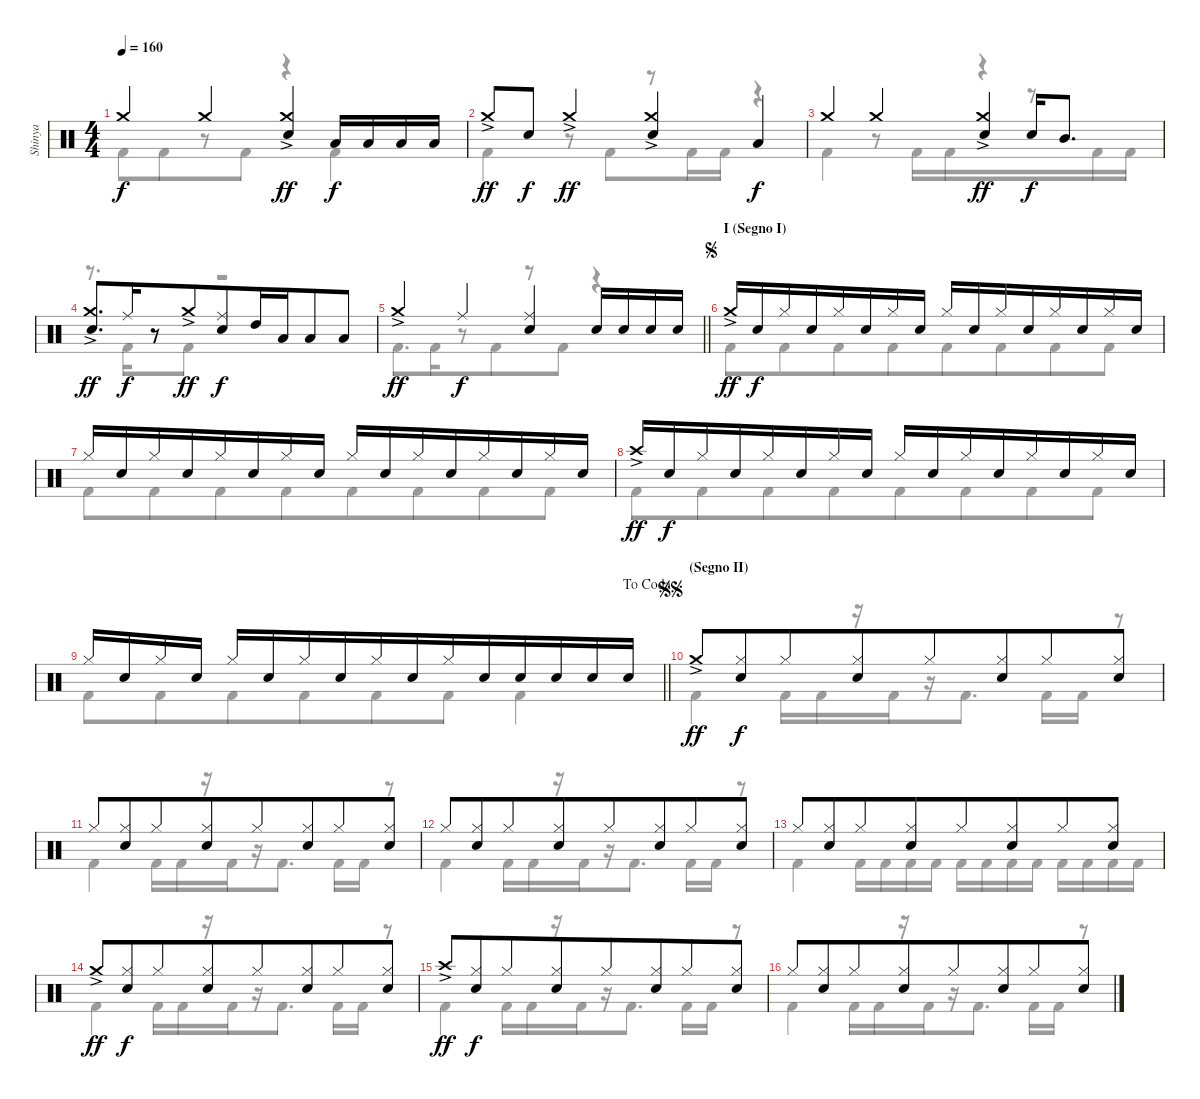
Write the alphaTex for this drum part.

\track ("Shinya" "Shinya") {instrument percussion}
\staff {score}
\articulation defaults
\voice
\ts (4 4)
\tempo 160
\clef neutral
\ks c "Crash medium (hit)".4{dy f beam merge} "Crash medium (hit)".4{beam merge}
("Crash medium (hit)"{ac} "Electric Snare (hit)").4{dy ff} "Low Tom (hit)".16{dy f} "Low Tom (hit)".16 "Low Tom (hit)".16 "Low Tom (hit)".16 |
"Crash medium (hit)"{ac}.8{dy ff beam merge} "Electric Snare (hit)".8{dy f beam merge} "Crash medium (hit)"{ac}.4{dy ff beam merge} ("Crash medium (hit)"{ac} "Electric Snare (hit)").4{beam merge} "Low Tom (hit)".4{dy f} |
"Crash medium (hit)".4{beam merge} "Crash medium (hit)".4{beam merge} ("Crash medium (hit)"{ac} "Electric Snare (hit)").4{dy ff beam merge} "Electric Snare (hit)".16{dy f} "Mid Tom (hit)".8{d} |
("Crash medium (hit)"{ac} "Electric Snare (hit)").8{d dy ff beam merge} "Ride (middle)".16{dy f beam merge} r.8{beam merge} "Crash medium (hit)"{ac}.8{dy ff beam merge} ("Ride (middle)" "Electric Snare (hit)").8{dy f} "High Tom (hit)".16 "Low Tom (hit)".16{beam merge} "Low Tom (hit)".8 "Low Tom (hit)".8 |
\barLineRight lightlight "Crash medium (hit)"{ac}.4{dy ff beam merge} "Ride (middle)".4{dy f beam merge}
("Ride (middle)" "Electric Snare (hit)").4{beam merge} "Electric Snare (hit)".16 "Electric Snare (hit)".16 "Electric Snare (hit)".16 "Electric Snare (hit)".16 |
\section ("" "I (Segno I)")
\jump segno "Crash medium (hit)"{ac}.16{dy ff beam merge} "Electric Snare (hit)".16{dy f beam merge} "Hi-Hat (closed)".16{beam merge} "Electric Snare (hit)".16{beam merge} "Hi-Hat (closed)".16 "Electric Snare (hit)".16{beam merge} "Hi-Hat (closed)".16 "Electric Snare (hit)".16 "Hi-Hat (closed)".16{beam merge} "Electric Snare (hit)".16{beam merge} "Hi-Hat (closed)".16{beam merge} "Electric Snare (hit)".16{beam merge} "Hi-Hat (closed)".16 "Electric Snare (hit)".16{beam merge} "Hi-Hat (closed)".16 "Electric Snare (hit)".16
|
"Hi-Hat (closed)".16{beam merge} "Electric Snare (hit)".16{beam merge} "Hi-Hat (closed)".16{beam merge} "Electric Snare (hit)".16{beam merge} "Hi-Hat (closed)".16 "Electric Snare (hit)".16{beam merge} "Hi-Hat (closed)".16 "Electric Snare (hit)".16 "Hi-Hat (closed)".16{beam merge} "Electric Snare (hit)".16{beam merge} "Hi-Hat (closed)".16{beam merge} "Electric Snare (hit)".16{beam merge} "Hi-Hat (closed)".16 "Electric Snare (hit)".16{beam merge} "Hi-Hat (closed)".16 "Electric Snare (hit)".16 |
"Crash high (hit)"{ac}.16{dy ff beam merge} "Electric Snare (hit)".16{dy f beam merge} "Hi-Hat (closed)".16{beam merge} "Electric Snare (hit)".16{beam merge} "Hi-Hat (closed)".16 "Electric Snare (hit)".16{beam merge} "Hi-Hat (closed)".16 "Electric Snare (hit)".16 "Hi-Hat (closed)".16{beam merge} "Electric Snare (hit)".16{beam merge} "Hi-Hat (closed)".16{beam merge} "Electric Snare (hit)".16{beam merge} "Hi-Hat (closed)".16 "Electric Snare (hit)".16{beam merge} "Hi-Hat (closed)".16 "Electric Snare (hit)".16 |
\jump dacoda
\barLineRight lightlight "Hi-Hat (closed)".16 "Electric Snare (hit)".16{beam merge} "Hi-Hat (closed)".16 "Electric Snare (hit)".16 "Hi-Hat (closed)".16{beam merge} "Electric Snare (hit)".16{beam merge} "Hi-Hat (closed)".16{beam merge} "Electric Snare (hit)".16{beam merge} "Hi-Hat (closed)".16 "Electric Snare (hit)".16{beam merge} "Hi-Hat (closed)".16 "Electric Snare (hit)".16{beam merge} "Electric Snare (hit)".16 "Electric Snare (hit)".16 "Electric Snare (hit)".16{beam merge} "Electric Snare (hit)".16
|
\section ("" "(Segno II)")
\jump segnosegno "Crash medium (hit)"{ac}.8{dy ff beam merge}
("Hi-Hat (closed)" "Electric Snare (hit)").8{dy f beam merge} "Hi-Hat (closed)".8{beam merge} ("Hi-Hat (closed)" "Electric Snare (hit)").8{beam merge} "Hi-Hat (closed)".8 ("Hi-Hat (closed)" "Electric Snare (hit)").8{beam merge} "Hi-Hat (closed)".8 ("Hi-Hat (closed)" "Electric Snare (hit)").8 |
"Hi-Hat (closed)".8 ("Hi-Hat (closed)" "Electric Snare (hit)").8{beam merge} "Hi-Hat (closed)".8 ("Hi-Hat (closed)" "Electric Snare (hit)").8{beam merge} "Hi-Hat (closed)".8 ("Hi-Hat (closed)" "Electric Snare (hit)").8{beam merge} "Hi-Hat (closed)".8 ("Hi-Hat (closed)" "Electric Snare (hit)").8 |
"Hi-Hat (closed)".8 ("Hi-Hat (closed)" "Electric Snare (hit)").8{beam merge} "Hi-Hat (closed)".8 ("Hi-Hat (closed)" "Electric Snare (hit)").8{beam merge} "Hi-Hat (closed)".8 ("Hi-Hat (closed)" "Electric Snare (hit)").8{beam merge} "Hi-Hat (closed)".8 ("Hi-Hat (closed)" "Electric Snare (hit)").8 |
"Hi-Hat (closed)".8 ("Hi-Hat (closed)" "Electric Snare (hit)").8{beam merge} "Hi-Hat (closed)".8 ("Hi-Hat (closed)" "Electric Snare (hit)").8{beam merge} "Hi-Hat (closed)".8 ("Hi-Hat (closed)" "Electric Snare (hit)").8{beam merge} "Hi-Hat (closed)".8 ("Hi-Hat (closed)" "Electric Snare (hit)").8 |
"Crash medium (hit)"{ac}.8{dy ff beam merge} ("Hi-Hat (closed)" "Electric Snare (hit)").8{dy f beam merge} "Hi-Hat (closed)".8{beam merge} ("Hi-Hat (closed)" "Electric Snare (hit)").8{beam merge} "Hi-Hat (closed)".8 ("Hi-Hat (closed)" "Electric Snare (hit)").8{beam merge} "Hi-Hat (closed)".8 ("Hi-Hat (closed)" "Electric Snare (hit)").8 |
"Crash high (hit)"{ac}.8{dy ff beam merge} ("Hi-Hat (closed)" "Electric Snare (hit)").8{dy f beam merge} "Hi-Hat (closed)".8{beam merge} ("Hi-Hat (closed)" "Electric Snare (hit)").8{beam merge} "Hi-Hat (closed)".8 ("Hi-Hat (closed)" "Electric Snare (hit)").8{beam merge} "Hi-Hat (closed)".8 ("Hi-Hat (closed)" "Electric Snare (hit)").8 |
"Hi-Hat (closed)".8 ("Hi-Hat (closed)" "Electric Snare (hit)").8{beam merge} "Hi-Hat (closed)".8 ("Hi-Hat (closed)" "Electric Snare (hit)").8{beam merge} "Hi-Hat (closed)".8 ("Hi-Hat (closed)" "Electric Snare (hit)").8{beam merge} "Hi-Hat (closed)".8 ("Hi-Hat (closed)" "Electric Snare (hit)").8
\voice
\clef neutral
\ottava regular
\simile none
\ks c "Kick (hit) 2".8{dy f beam merge} "Kick (hit) 2".8{beam merge}
r.8{beam merge} "Kick (hit) 2".8{beam merge} r.4 "Kick (hit) 2".4 |
"Kick (hit) 2".4{beam merge} r.8{beam merge} "Kick (hit) 2".8{beam merge} r.8 "Kick (hit) 2".16 "Kick (hit) 2".16{beam merge} r.4 |
"Kick (hit) 2".4{beam merge} r.8 "Kick (hit) 2".16{beam merge} "Kick (hit) 2".16{beam merge} r.4{beam merge} r.8 "Kick (hit) 2".16 "Kick (hit) 2".16 |
r.8{d beam merge} "Kick (hit) 2".16{beam merge} r.8{beam merge} "Kick (hit) 2".8{beam merge} r.2 |
\barLineRight lightlight "Kick (hit) 2".8{d beam merge} "Kick (hit) 2".16{beam merge}
r.8{beam merge} "Kick (hit) 2".8{beam merge} r.8 "Kick (hit) 2".8{beam merge} r.4 |
"Kick (hit) 2".8{beam merge} "Kick (hit) 2".8{beam merge} "Kick (hit) 2".8{beam merge} "Kick (hit) 2".8{beam merge} "Kick (hit) 2".8 "Kick (hit) 2".8{beam merge} "Kick (hit) 2".8 "Kick (hit) 2".8 |
"Kick (hit) 2".8{beam merge} "Kick (hit) 2".8{beam merge} "Kick (hit) 2".8{beam merge} "Kick (hit) 2".8{beam merge} "Kick (hit) 2".8 "Kick (hit) 2".8{beam merge} "Kick (hit) 2".8 "Kick (hit) 2".8 |
"Kick (hit) 2".8{beam merge} "Kick (hit) 2".8{beam merge} "Kick (hit) 2".8{beam merge} "Kick (hit) 2".8{beam merge} "Kick (hit) 2".8 "Kick (hit) 2".8{beam merge} "Kick (hit) 2".8 "Kick (hit) 2".8 |
\barLineRight lightlight "Kick (hit) 2".8{beam merge} "Kick (hit) 2".8{beam merge} "Kick (hit) 2".8{beam merge} "Kick (hit) 2".8{beam merge} "Kick (hit) 2".8 "Kick (hit) 2".8 "Kick (hit) 2".4
|
"Kick (hit) 2".4{beam merge} "Kick (hit) 2".16{beam merge} "Kick (hit) 2".16 r.16{beam merge} "Kick (hit) 2".16{beam merge} r.16{beam merge} "Kick (hit) 2".8{d} "Kick (hit) 2".16{beam merge} "Kick (hit) 2".16 r.8 |
"Kick (hit) 2".4{beam merge} "Kick (hit) 2".16{beam merge} "Kick (hit) 2".16 r.16{beam merge} "Kick (hit) 2".16{beam merge} r.16{beam merge} "Kick (hit) 2".8{d} "Kick (hit) 2".16{beam merge} "Kick (hit) 2".16 r.8 |
"Kick (hit) 2".4{beam merge} "Kick (hit) 2".16{beam merge} "Kick (hit) 2".16 r.16{beam merge} "Kick (hit) 2".16{beam merge} r.16{beam merge} "Kick (hit) 2".8{d} "Kick (hit) 2".16{beam merge} "Kick (hit) 2".16 r.8 |
"Kick (hit) 2".4{beam merge} "Kick (hit) 2".16{beam merge} "Kick (hit) 2".16{beam merge} "Kick (hit) 2".16{beam merge} "Kick (hit) 2".16 "Kick (hit) 2".16{beam merge} "Kick (hit) 2".16 "Kick (hit) 2".16 "Kick (hit) 2".16 "Kick (hit) 2".16{beam merge} "Kick (hit) 2".16 "Kick (hit) 2".16{beam merge} "Kick (hit) 2".16 |
"Kick (hit) 2".4{beam merge} "Kick (hit) 2".16{beam merge} "Kick (hit) 2".16 r.16{beam merge} "Kick (hit) 2".16{beam merge} r.16{beam merge} "Kick (hit) 2".8{d} "Kick (hit) 2".16{beam merge} "Kick (hit) 2".16 r.8 |
"Kick (hit) 2".4{beam merge} "Kick (hit) 2".16{beam merge} "Kick (hit) 2".16 r.16{beam merge} "Kick (hit) 2".16{beam merge} r.16{beam merge} "Kick (hit) 2".8{d} "Kick (hit) 2".16{beam merge} "Kick (hit) 2".16 r.8 |
"Kick (hit) 2".4{beam merge} "Kick (hit) 2".16{beam merge} "Kick (hit) 2".16 r.16{beam merge} "Kick (hit) 2".16{beam merge} r.16{beam merge} "Kick (hit) 2".8{d} "Kick (hit) 2".16{beam merge} "Kick (hit) 2".16 r.8
